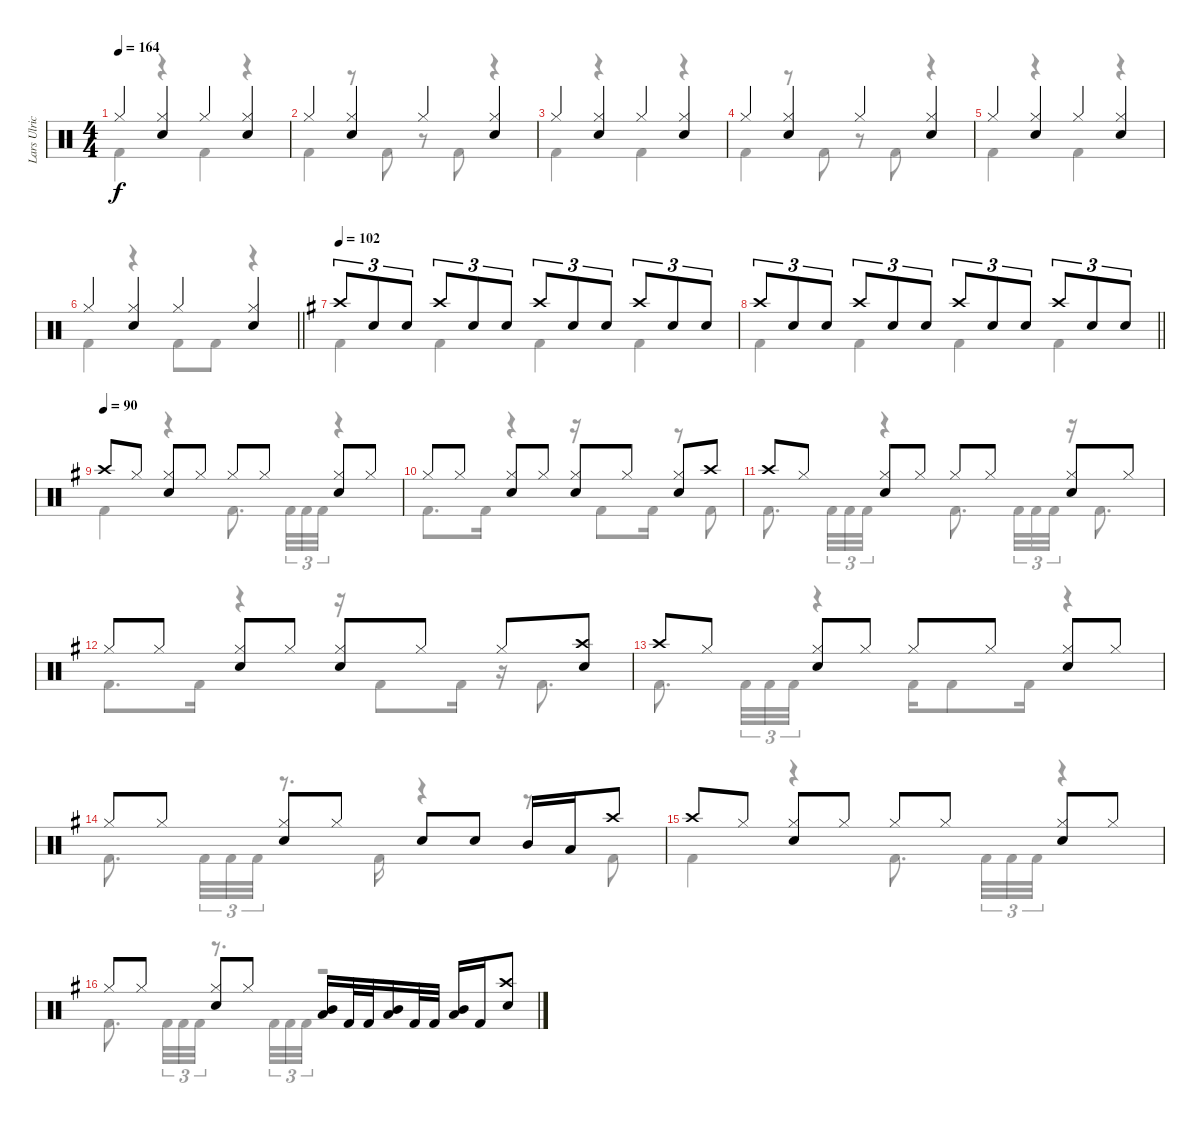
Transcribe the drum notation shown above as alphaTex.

\track ("Lars Ulrich" "Lars Ulric") {instrument percussion}
\staff {score}
\articulation defaults
\voice
\ts (4 4)
\tempo 164
\clef neutral
\ks c "Hi-Hat (closed)".4{dy f}
("Hi-Hat (closed)" "Snare (hit) 2").4 "Hi-Hat (closed)".4 ("Hi-Hat (closed)" "Snare (hit) 2").4 |
"Hi-Hat (closed)".4 ("Hi-Hat (closed)" "Snare (hit) 2").4 "Hi-Hat (closed)".4 ("Hi-Hat (closed)" "Snare (hit) 2").4 |
"Hi-Hat (closed)".4 ("Hi-Hat (closed)" "Snare (hit) 2").4 "Hi-Hat (closed)".4 ("Hi-Hat (closed)" "Snare (hit) 2").4 |
"Hi-Hat (closed)".4 ("Hi-Hat (closed)" "Snare (hit) 2").4 "Hi-Hat (closed)".4 ("Hi-Hat (closed)" "Snare (hit) 2").4 |
"Hi-Hat (closed)".4 ("Hi-Hat (closed)" "Snare (hit) 2").4 "Hi-Hat (closed)".4 ("Hi-Hat (closed)" "Snare (hit) 2").4 |
\barLineRight lightlight "Hi-Hat (closed)".4
("Hi-Hat (closed)" "Snare (hit) 2").4 "Hi-Hat (closed)".4 ("Hi-Hat (closed)" "Snare (hit) 2").4 |
\tempo 102
\ks eminor "Crash high (hit)".8{tu (3 2)} "Snare (hit) 2".8{tu (3 2)} "Snare (hit) 2".8{tu (3 2)} "Crash high (hit)".8{tu (3 2)} "Snare (hit) 2".8{tu (3 2)} "Snare (hit) 2".8{tu (3 2)} "Crash high (hit)".8{tu (3 2)} "Snare (hit) 2".8{tu (3 2)} "Snare (hit) 2".8{tu (3 2)} "Crash high (hit)".8{tu (3 2)} "Snare (hit) 2".8{tu (3 2)} "Snare (hit) 2".8{tu (3 2)}
|
\barLineRight lightlight "Crash high (hit)".8{tu (3 2)} "Snare (hit) 2".8{tu (3 2)} "Snare (hit) 2".8{tu (3 2)} "Crash high (hit)".8{tu (3 2)} "Snare (hit) 2".8{tu (3 2)} "Snare (hit) 2".8{tu (3 2)} "Crash high (hit)".8{tu (3 2)} "Snare (hit) 2".8{tu (3 2)} "Snare (hit) 2".8{tu (3 2)} "Crash high (hit)".8{tu (3 2)} "Snare (hit) 2".8{tu (3 2)} "Snare (hit) 2".8{tu (3 2)}
|
\tempo (90)
"Crash high (hit)".8 "Hi-Hat (closed)".8 ("Hi-Hat (closed)" "Snare (hit) 2").8 "Hi-Hat (closed)".8 "Hi-Hat (closed)".8 "Hi-Hat (closed)".8 ("Hi-Hat (closed)" "Snare (hit) 2").8 "Hi-Hat (closed)".8 |
"Hi-Hat (closed)".8 "Hi-Hat (closed)".8 ("Hi-Hat (closed)" "Snare (hit) 2").8 "Hi-Hat (closed)".8 ("Hi-Hat (closed)" "Snare (hit) 2").8 "Hi-Hat (closed)".8 ("Hi-Hat (closed)" "Snare (hit) 2").8 "Crash high (hit)".8 |
"Crash high (hit)".8 "Hi-Hat (closed)".8 ("Hi-Hat (closed)" "Snare (hit) 2").8 "Hi-Hat (closed)".8 "Hi-Hat (closed)".8 "Hi-Hat (closed)".8 ("Hi-Hat (closed)" "Snare (hit) 2").8 "Hi-Hat (closed)".8 |
"Hi-Hat (closed)".8 "Hi-Hat (closed)".8 ("Hi-Hat (closed)" "Snare (hit) 2").8 "Hi-Hat (closed)".8 ("Hi-Hat (closed)" "Snare (hit) 2").8 "Hi-Hat (closed)".8 "Hi-Hat (closed)".8 ("Crash high (hit)" "Snare (hit) 2").8 |
"Crash high (hit)".8 "Hi-Hat (closed)".8 ("Hi-Hat (closed)" "Snare (hit) 2").8 "Hi-Hat (closed)".8 "Hi-Hat (closed)".8 "Hi-Hat (closed)".8 ("Hi-Hat (closed)" "Snare (hit) 2").8 "Hi-Hat (closed)".8 |
"Hi-Hat (closed)".8 "Hi-Hat (closed)".8 ("Hi-Hat (closed)" "Snare (hit) 2").8 "Hi-Hat (closed)".8 "Snare (hit) 2".8 "Snare (hit) 2".8 "Mid Tom (hit)".16 "Low Tom (hit)".16 "Crash high (hit)".8 |
"Crash high (hit)".8 "Hi-Hat (closed)".8 ("Hi-Hat (closed)" "Snare (hit) 2").8 "Hi-Hat (closed)".8 "Hi-Hat (closed)".8 "Hi-Hat (closed)".8 ("Hi-Hat (closed)" "Snare (hit) 2").8 "Hi-Hat (closed)".8 |
"Hi-Hat (closed)".8 "Hi-Hat (closed)".8 ("Hi-Hat (closed)" "Snare (hit) 2").8 "Hi-Hat (closed)".8 ("Mid Tom (hit)" "Low Tom (hit)").16 "Kick (hit) 2".32 "Kick (hit) 2".32 ("Mid Tom (hit)" "Low Tom (hit)").16 "Kick (hit) 2".32 "Kick (hit) 2".32 ("Mid Tom (hit)" "Low Tom (hit)").16 "Kick (hit) 2".16 ("Crash high (hit)" "Snare (hit) 2").8
\voice
\clef neutral
\ottava regular
\simile none
\ks c "Kick (hit) 2".4{dy f}
r.4 "Kick (hit) 2".4 r.4 |
"Kick (hit) 2".4 r.8 "Kick (hit) 2".8 r.8 "Kick (hit) 2".8 r.4 |
"Kick (hit) 2".4 r.4 "Kick (hit) 2".4 r.4 |
"Kick (hit) 2".4 r.8 "Kick (hit) 2".8 r.8 "Kick (hit) 2".8 r.4 |
"Kick (hit) 2".4 r.4 "Kick (hit) 2".4 r.4 |
\barLineRight lightlight "Kick (hit) 2".4
r.4 "Kick (hit) 2".8 "Kick (hit) 2".8 r.4 |
\ks eminor "Kick (hit) 2".4 "Kick (hit) 2".4 "Kick (hit) 2".4 "Kick (hit) 2".4
|
\barLineRight lightlight "Kick (hit) 2".4 "Kick (hit) 2".4 "Kick (hit) 2".4 "Kick (hit) 2".4
|
"Kick (hit) 2".4 r.4 "Kick (hit) 2".8{d} "Kick (hit) 2".32{tu (3 2)} "Kick (hit) 2".32{tu (3 2)} "Kick (hit) 2".32{tu (3 2)} r.4 |
"Kick (hit) 2".8{d} "Kick (hit) 2".16 r.4 r.16 "Kick (hit) 2".8 "Kick (hit) 2".16 r.8 "Kick (hit) 2".8 |
"Kick (hit) 2".8{d} "Kick (hit) 2".32{tu (3 2)} "Kick (hit) 2".32{tu (3 2)} "Kick (hit) 2".32{tu (3 2)} r.4 "Kick (hit) 2".8{d} "Kick (hit) 2".32{tu (3 2)} "Kick (hit) 2".32{tu (3 2)} "Kick (hit) 2".32{tu (3 2)} r.16 "Kick (hit) 2".8{d} |
"Kick (hit) 2".8{d} "Kick (hit) 2".16 r.4 r.16 "Kick (hit) 2".8 "Kick (hit) 2".16 r.16 "Kick (hit) 2".8{d} |
"Kick (hit) 2".8{d} "Kick (hit) 2".32{tu (3 2)} "Kick (hit) 2".32{tu (3 2)} "Kick (hit) 2".32{tu (3 2)} r.4 "Kick (hit) 2".16 "Kick (hit) 2".8 "Kick (hit) 2".16 r.4 |
"Kick (hit) 2".8{d} "Kick (hit) 2".32{tu (3 2)} "Kick (hit) 2".32{tu (3 2)} "Kick (hit) 2".32{tu (3 2)} r.8{d} "Kick (hit) 2".16 r.4 r.8 "Kick (hit) 2".8 |
"Kick (hit) 2".4 r.4 "Kick (hit) 2".8{d} "Kick (hit) 2".32{tu (3 2)} "Kick (hit) 2".32{tu (3 2)} "Kick (hit) 2".32{tu (3 2)} r.4 |
"Kick (hit) 2".8{d} "Kick (hit) 2".32{tu (3 2)} "Kick (hit) 2".32{tu (3 2)} "Kick (hit) 2".32{tu (3 2)} r.8{d} "Kick (hit) 2".32{tu (3 2)} "Kick (hit) 2".32{tu (3 2)} "Kick (hit) 2".32{tu (3 2)} r.2
